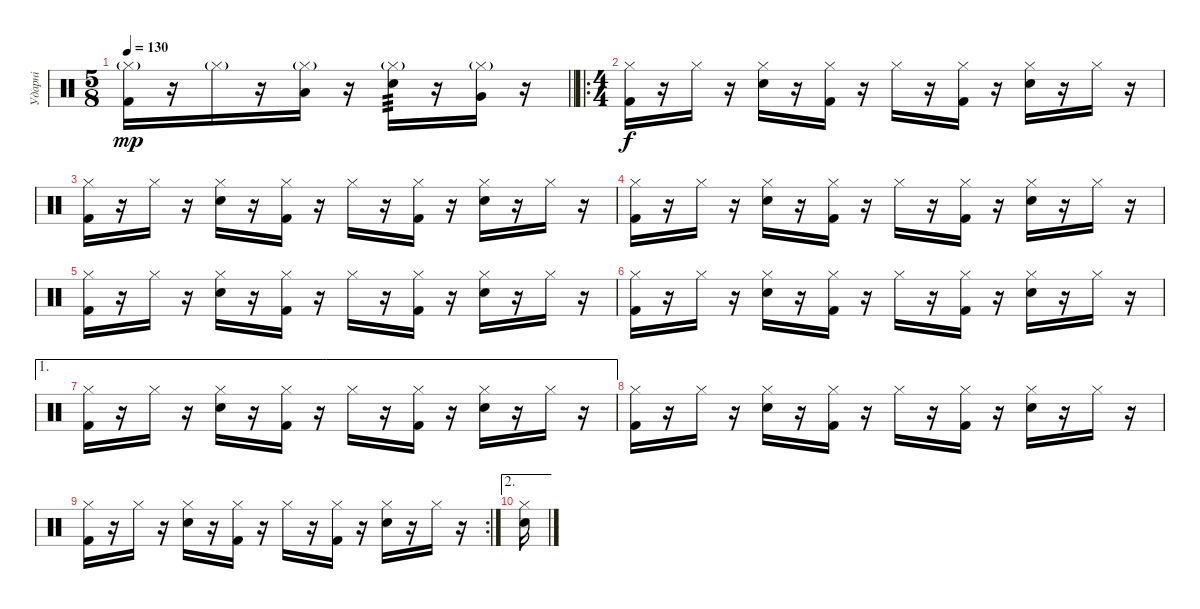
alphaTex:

\track ("Ударні" "Ударні") {instrument percussion}
\staff {score}
\articulation defaults
\ts (5 8)
\tempo 130
\clef neutral
\barLineRight lightlight
\ks c
("Hi-Hat (closed)"{g} "Kick (hit) 2").16{dy mp} r.16 "Hi-Hat (closed)"{g}.16 r.16 ("Hi-Hat (closed)"{g} "Low Floor Tom (hit)").16 r.16 ("Hi-Hat (closed)"{g} "Snare (hit) 2").16{tp 3} r.16 ("Hi-Hat (closed)"{g} "Very Low Tom (hit)").16 r.16 |
\ro
\ts (4 4)
("Hi-Hat (closed)" "Kick (hit) 2").16{dy f} r.16 "Hi-Hat (closed)".16 r.16 ("Hi-Hat (closed)" "Snare (hit) 2").16 r.16 ("Hi-Hat (closed)" "Kick (hit) 2").16 r.16 "Hi-Hat (closed)".16 r.16 ("Hi-Hat (closed)" "Kick (hit) 2").16 r.16 ("Hi-Hat (closed)" "Snare (hit) 2").16 r.16 "Hi-Hat (closed)".16 r.16 |
("Hi-Hat (closed)" "Kick (hit) 2").16 r.16 "Hi-Hat (closed)".16 r.16 ("Hi-Hat (closed)" "Snare (hit) 2").16 r.16 ("Hi-Hat (closed)" "Kick (hit) 2").16 r.16 "Hi-Hat (closed)".16 r.16 ("Hi-Hat (closed)" "Kick (hit) 2").16 r.16 ("Hi-Hat (closed)" "Snare (hit) 2").16 r.16 "Hi-Hat (closed)".16 r.16 |
("Hi-Hat (closed)" "Kick (hit) 2").16 r.16 "Hi-Hat (closed)".16 r.16 ("Hi-Hat (closed)" "Snare (hit) 2").16 r.16 ("Hi-Hat (closed)" "Kick (hit) 2").16 r.16 "Hi-Hat (closed)".16 r.16 ("Hi-Hat (closed)" "Kick (hit) 2").16 r.16 ("Hi-Hat (closed)" "Snare (hit) 2").16 r.16 "Hi-Hat (closed)".16 r.16 |
("Hi-Hat (closed)" "Kick (hit) 2").16 r.16 "Hi-Hat (closed)".16 r.16 ("Hi-Hat (closed)" "Snare (hit) 2").16 r.16 ("Hi-Hat (closed)" "Kick (hit) 2").16 r.16 "Hi-Hat (closed)".16 r.16 ("Hi-Hat (closed)" "Kick (hit) 2").16 r.16 ("Hi-Hat (closed)" "Snare (hit) 2").16 r.16 "Hi-Hat (closed)".16 r.16 |
("Hi-Hat (closed)" "Kick (hit) 2").16 r.16 "Hi-Hat (closed)".16 r.16 ("Hi-Hat (closed)" "Snare (hit) 2").16 r.16 ("Hi-Hat (closed)" "Kick (hit) 2").16 r.16 "Hi-Hat (closed)".16 r.16 ("Hi-Hat (closed)" "Kick (hit) 2").16 r.16 ("Hi-Hat (closed)" "Snare (hit) 2").16 r.16 "Hi-Hat (closed)".16 r.16 |
\ae 1
("Hi-Hat (closed)" "Kick (hit) 2").16 r.16 "Hi-Hat (closed)".16 r.16 ("Hi-Hat (closed)" "Snare (hit) 2").16 r.16 ("Hi-Hat (closed)" "Kick (hit) 2").16 r.16 "Hi-Hat (closed)".16 r.16 ("Hi-Hat (closed)" "Kick (hit) 2").16 r.16 ("Hi-Hat (closed)" "Snare (hit) 2").16 r.16 "Hi-Hat (closed)".16 r.16 |
("Hi-Hat (closed)" "Kick (hit) 2").16 r.16 "Hi-Hat (closed)".16 r.16 ("Hi-Hat (closed)" "Snare (hit) 2").16 r.16 ("Hi-Hat (closed)" "Kick (hit) 2").16 r.16 "Hi-Hat (closed)".16 r.16 ("Hi-Hat (closed)" "Kick (hit) 2").16 r.16 ("Hi-Hat (closed)" "Snare (hit) 2").16 r.16 "Hi-Hat (closed)".16 r.16 |
\rc 2
("Hi-Hat (closed)" "Kick (hit) 2").16 r.16 "Hi-Hat (closed)".16 r.16 ("Hi-Hat (closed)" "Snare (hit) 2").16 r.16 ("Hi-Hat (closed)" "Kick (hit) 2").16 r.16 "Hi-Hat (closed)".16 r.16 ("Hi-Hat (closed)" "Kick (hit) 2").16 r.16 ("Hi-Hat (closed)" "Snare (hit) 2").16 r.16 "Hi-Hat (closed)".16 r.16 |
\ae 2
("Hi-Hat (closed)" "Snare (hit) 2").16
